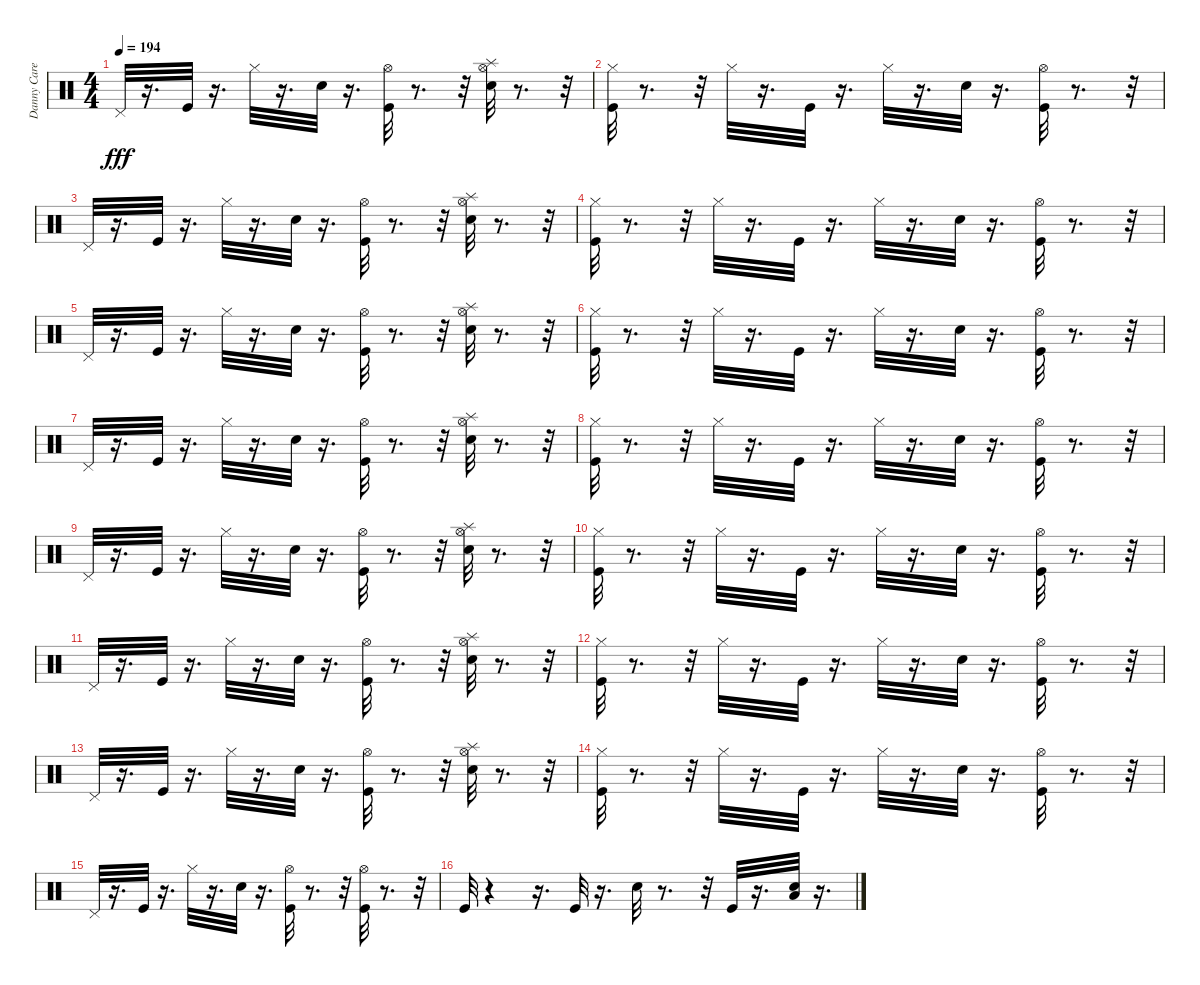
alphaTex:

\track ("Danny Carey" "Danny Care") {instrument percussion}
\staff {score}
\articulation defaults
\ts (4 4)
\tempo 194
\clef neutral
\ks c "Pedal Hi-Hat (hit)".32{dy fff}
r.16{d} "Kick (hit)".32 r.16{d} "Hi-Hat (closed)".32 r.16{d} "Snare (hit) 2".32 r.16{d} ("Hi-Hat (open)" "Kick (hit)").32 r.8{d} r.32 ("Hi-Hat (open)" "Snare (hit) 2" "Splash (hit)").32 r.8{d} r.32 |
("Hi-Hat (closed)" "Kick (hit)").32 r.8{d} r.32 "Hi-Hat (closed)".32 r.16{d} "Kick (hit)".32 r.16{d} "Hi-Hat (closed)".32 r.16{d} "Snare (hit) 2".32 r.16{d} ("Hi-Hat (open)" "Kick (hit)").32 r.8{d} r.32 |
"Pedal Hi-Hat (hit)".32 r.16{d} "Kick (hit)".32 r.16{d} "Hi-Hat (closed)".32 r.16{d} "Snare (hit) 2".32 r.16{d} ("Hi-Hat (open)" "Kick (hit)").32 r.8{d} r.32 ("Splash (hit)" "Hi-Hat (open)" "Snare (hit) 2").32 r.8{d} r.32 |
("Hi-Hat (closed)" "Kick (hit)").32 r.8{d} r.32 "Hi-Hat (closed)".32 r.16{d} "Kick (hit)".32 r.16{d} "Hi-Hat (closed)".32 r.16{d} "Snare (hit) 2".32 r.16{d} ("Hi-Hat (open)" "Kick (hit)").32 r.8{d} r.32 |
"Pedal Hi-Hat (hit)".32 r.16{d} "Kick (hit)".32 r.16{d} "Hi-Hat (closed)".32 r.16{d} "Snare (hit) 2".32 r.16{d} ("Hi-Hat (open)" "Kick (hit)").32 r.8{d} r.32 ("Splash (hit)" "Hi-Hat (open)" "Snare (hit) 2").32 r.8{d} r.32 |
("Hi-Hat (closed)" "Kick (hit)").32 r.8{d} r.32 "Hi-Hat (closed)".32 r.16{d} "Kick (hit)".32 r.16{d} "Hi-Hat (closed)".32 r.16{d} "Snare (hit) 2".32 r.16{d} ("Hi-Hat (open)" "Kick (hit)").32 r.8{d} r.32 |
"Pedal Hi-Hat (hit)".32 r.16{d} "Kick (hit)".32 r.16{d} "Hi-Hat (closed)".32 r.16{d} "Snare (hit) 2".32 r.16{d} ("Hi-Hat (open)" "Kick (hit)").32 r.8{d} r.32 ("Splash (hit)" "Hi-Hat (open)" "Snare (hit) 2").32 r.8{d} r.32 |
("Hi-Hat (closed)" "Kick (hit)").32 r.8{d} r.32 "Hi-Hat (closed)".32 r.16{d} "Kick (hit)".32 r.16{d} "Hi-Hat (closed)".32 r.16{d} "Snare (hit) 2".32 r.16{d} ("Hi-Hat (open)" "Kick (hit)").32 r.8{d} r.32 |
"Pedal Hi-Hat (hit)".32 r.16{d} "Kick (hit)".32 r.16{d} "Hi-Hat (closed)".32 r.16{d} "Snare (hit) 2".32 r.16{d} ("Hi-Hat (open)" "Kick (hit)").32 r.8{d} r.32 ("Splash (hit)" "Hi-Hat (open)" "Snare (hit) 2").32 r.8{d} r.32 |
("Hi-Hat (closed)" "Kick (hit)").32 r.8{d} r.32 "Hi-Hat (closed)".32 r.16{d} "Kick (hit)".32 r.16{d} "Hi-Hat (closed)".32 r.16{d} "Snare (hit) 2".32 r.16{d} ("Hi-Hat (open)" "Kick (hit)").32 r.8{d} r.32 |
"Pedal Hi-Hat (hit)".32 r.16{d} "Kick (hit)".32 r.16{d} "Hi-Hat (closed)".32 r.16{d} "Snare (hit) 2".32 r.16{d} ("Hi-Hat (open)" "Kick (hit)").32 r.8{d} r.32 ("Splash (hit)" "Hi-Hat (open)" "Snare (hit) 2").32 r.8{d} r.32 |
("Hi-Hat (closed)" "Kick (hit)").32 r.8{d} r.32 "Hi-Hat (closed)".32 r.16{d} "Kick (hit)".32 r.16{d} "Hi-Hat (closed)".32 r.16{d} "Snare (hit) 2".32 r.16{d} ("Hi-Hat (open)" "Kick (hit)").32 r.8{d} r.32 |
"Pedal Hi-Hat (hit)".32 r.16{d} "Kick (hit)".32 r.16{d} "Hi-Hat (closed)".32 r.16{d} "Snare (hit) 2".32 r.16{d} ("Hi-Hat (open)" "Kick (hit)").32 r.8{d} r.32 ("Splash (hit)" "Hi-Hat (open)" "Snare (hit) 2").32 r.8{d} r.32 |
("Hi-Hat (closed)" "Kick (hit)").32 r.8{d} r.32 "Hi-Hat (closed)".32 r.16{d} "Kick (hit)".32 r.16{d} "Hi-Hat (closed)".32 r.16{d} "Snare (hit) 2".32 r.16{d} ("Hi-Hat (open)" "Kick (hit)").32 r.8{d} r.32 |
"Pedal Hi-Hat (hit)".32 r.16{d} "Kick (hit)".32 r.16{d} "Hi-Hat (closed)".32 r.16{d} "Snare (hit) 2".32 r.16{d} ("Hi-Hat (open)" "Kick (hit)").32 r.8{d} r.32 ("Hi-Hat (open)" "Kick (hit)").32 r.8{d} r.32 |
"Kick (hit)".32 r.4 r.16{d} "Kick (hit)".32 r.16{d} "Snare (hit) 2".32 r.8{d} r.32 "Kick (hit)".32 r.16{d} ("Low Tom (hit)" "Snare (hit) 2").32 r.16{d}
